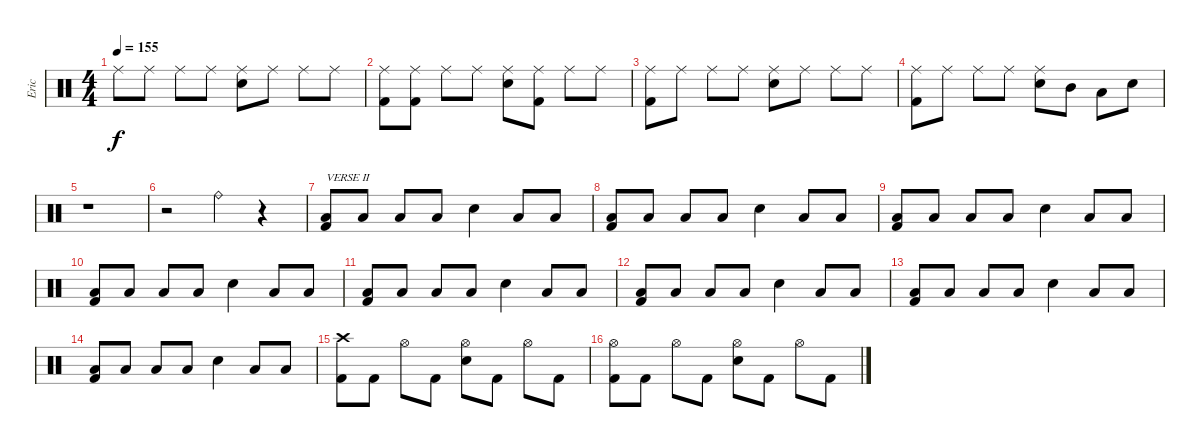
\track ("Eric" "Eric") {instrument percussion}
\staff {score}
\articulation defaults
\ts (4 4)
\tempo 155
\clef neutral
\ks c "Ride (middle)".8{dy f} "Ride (middle)".8 "Ride (middle)".8 "Ride (middle)".8
("Ride (middle)" "Electric Snare (hit)").8 "Ride (middle)".8 "Ride (middle)".8 "Ride (middle)".8 |
("Ride (middle)" "Kick (hit) 2").8 ("Ride (middle)" "Kick (hit) 2").8 "Ride (middle)".8 "Ride (middle)".8 ("Ride (middle)" "Electric Snare (hit)").8 ("Ride (middle)" "Kick (hit) 2").8 "Ride (middle)".8 "Ride (middle)".8 |
("Ride (middle)" "Kick (hit) 2").8 "Ride (middle)".8 "Ride (middle)".8 "Ride (middle)".8 ("Ride (middle)" "Electric Snare (hit)").8 "Ride (middle)".8 "Ride (middle)".8 "Ride (middle)".8 |
("Ride (middle)" "Kick (hit) 2").8 "Ride (middle)".8 "Ride (middle)".8 "Ride (middle)".8 ("Ride (middle)" "Electric Snare (hit)").8 "Mid Tom (hit)".8 "Low Tom (hit)".8 "Electric Snare (hit)".8 |
r.1 |
r.2 "Ride (bell)".4 r.4 |
("Low Floor Tom (hit)" "Kick (hit) 2").8{txt "VERSE II"} "Low Floor Tom (hit)".8 "Low Floor Tom (hit)".8 "Low Floor Tom (hit)".8 "Electric Snare (hit)".4 "Low Floor Tom (hit)".8 "Low Floor Tom (hit)".8 |
("Low Floor Tom (hit)" "Kick (hit) 2").8 "Low Floor Tom (hit)".8 "Low Floor Tom (hit)".8 "Low Floor Tom (hit)".8 "Electric Snare (hit)".4 "Low Floor Tom (hit)".8 "Low Floor Tom (hit)".8 |
("Low Floor Tom (hit)" "Kick (hit) 2").8 "Low Floor Tom (hit)".8 "Low Floor Tom (hit)".8 "Low Floor Tom (hit)".8 "Electric Snare (hit)".4 "Low Floor Tom (hit)".8 "Low Floor Tom (hit)".8 |
("Low Floor Tom (hit)" "Kick (hit) 2").8 "Low Floor Tom (hit)".8 "Low Floor Tom (hit)".8 "Low Floor Tom (hit)".8 "Electric Snare (hit)".4 "Low Floor Tom (hit)".8 "Low Floor Tom (hit)".8 |
("Low Floor Tom (hit)" "Kick (hit) 2").8 "Low Floor Tom (hit)".8 "Low Floor Tom (hit)".8 "Low Floor Tom (hit)".8 "Electric Snare (hit)".4 "Low Floor Tom (hit)".8 "Low Floor Tom (hit)".8 |
("Low Floor Tom (hit)" "Kick (hit) 2").8 "Low Floor Tom (hit)".8 "Low Floor Tom (hit)".8 "Low Floor Tom (hit)".8 "Electric Snare (hit)".4 "Low Floor Tom (hit)".8 "Low Floor Tom (hit)".8 |
("Low Floor Tom (hit)" "Kick (hit) 2").8 "Low Floor Tom (hit)".8 "Low Floor Tom (hit)".8 "Low Floor Tom (hit)".8 "Electric Snare (hit)".4 "Low Floor Tom (hit)".8 "Low Floor Tom (hit)".8 |
("Low Floor Tom (hit)" "Kick (hit) 2").8 "Low Floor Tom (hit)".8 "Low Floor Tom (hit)".8 "Low Floor Tom (hit)".8 "Electric Snare (hit)".4 "Low Floor Tom (hit)".8 "Low Floor Tom (hit)".8 |
("Crash high (hit)" "Kick (hit) 2").8 "Kick (hit) 2".8 "Hi-Hat (open)".8 "Kick (hit) 2".8 ("Hi-Hat (open)" "Electric Snare (hit)").8 "Kick (hit) 2".8 "Hi-Hat (open)".8 "Kick (hit) 2".8 |
("Hi-Hat (open)" "Kick (hit) 2").8 "Kick (hit) 2".8 "Hi-Hat (open)".8 "Kick (hit) 2".8 ("Hi-Hat (open)" "Electric Snare (hit)").8 "Kick (hit) 2".8 "Hi-Hat (open)".8 "Kick (hit) 2".8
